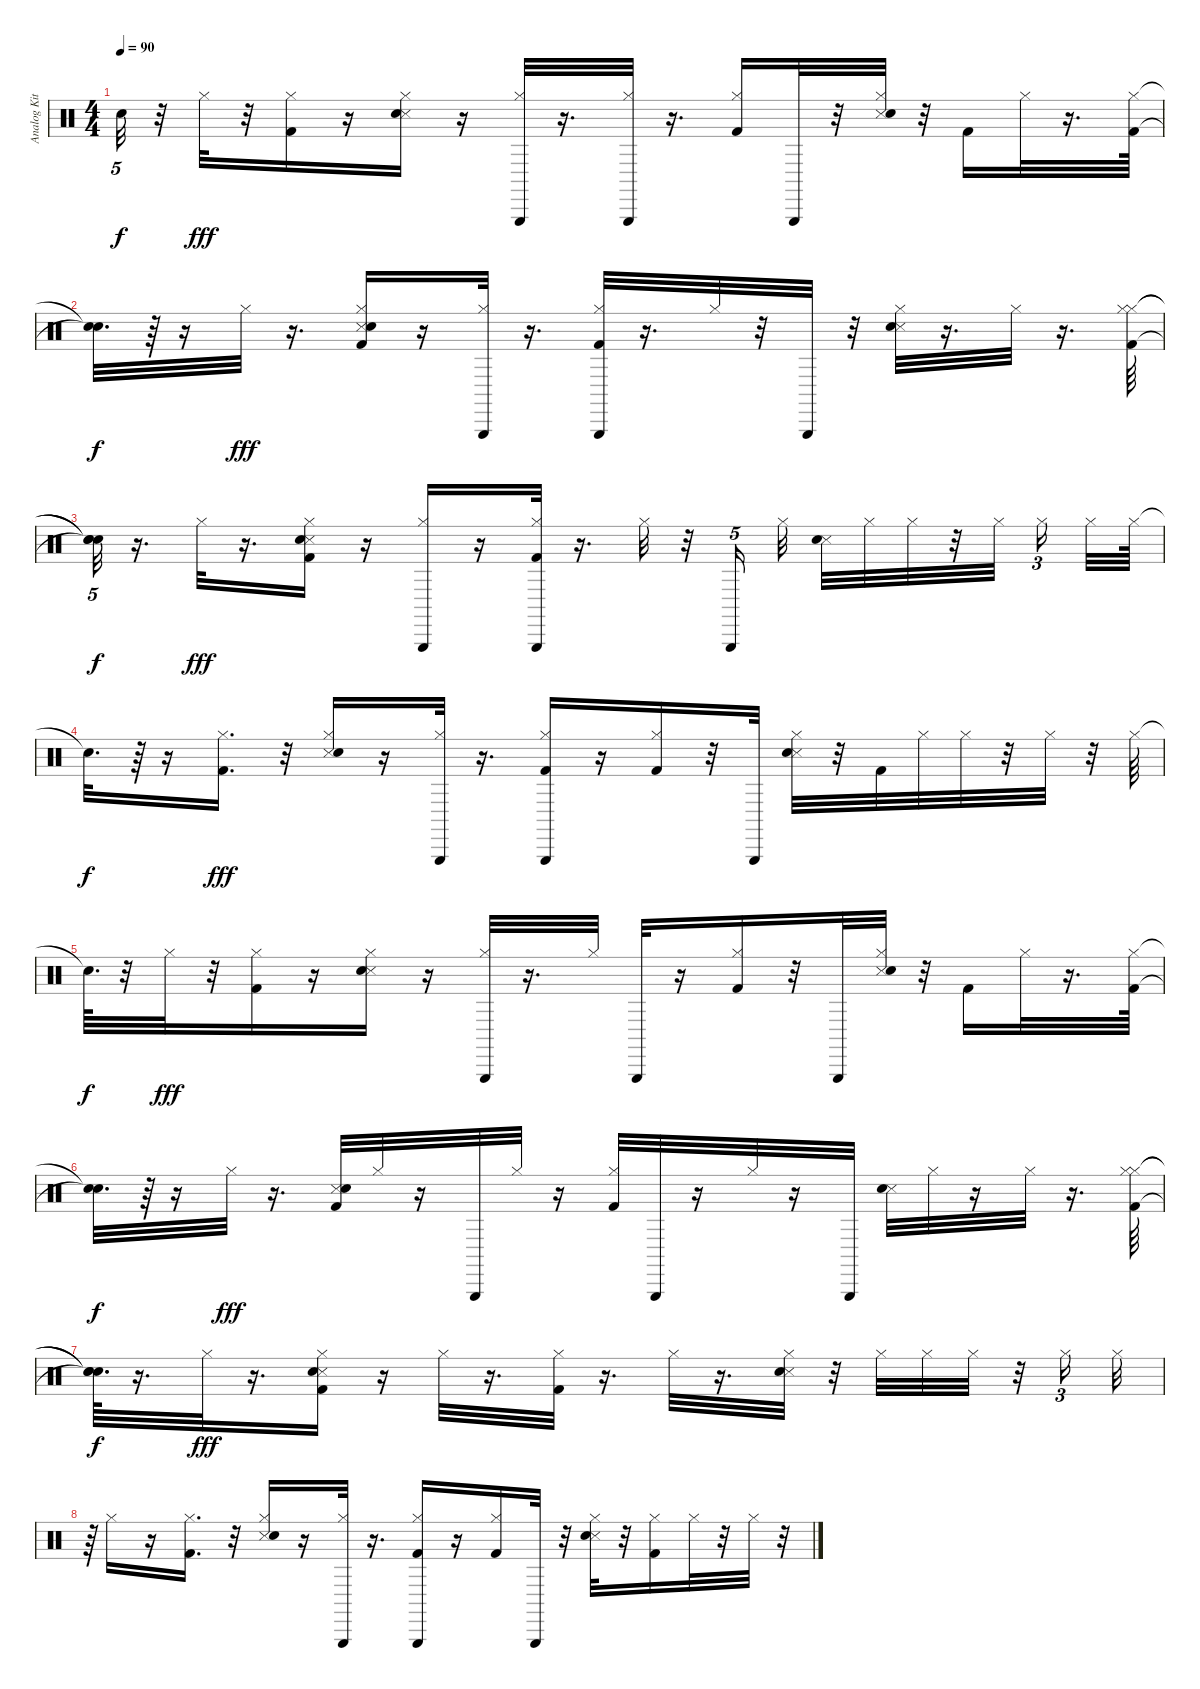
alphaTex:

\track ("Analog Kit" "Analog Kit") {instrument percussion}
\staff {score}
\articulation defaults
\ts (4 4)
\tempo 90
\clef neutral
\ks c "Snare (hit)"{t}.32{tu (5 4) dy f}
r.32 "Hi-Hat (closed)".32{dy fff} r.32 ("Hi-Hat (closed)" "Kick (hit) 2").16 r.16 ("Snare (side stick) 3" "Electric Snare (hit)" "Hi-Hat (closed)").16 r.16 ("Hi-Hat (closed)" "Triangle (hit)").32 r.16{d} ("Hi-Hat (closed)" "Triangle (hit)").32 r.16{d} ("Kick (hit) 2" "Hi-Hat (closed)").16 "Triangle (hit)".32 r.32 ("Snare (side stick) 3" "Electric Snare (hit)" "Hi-Hat (closed)").32 r.32 "Kick (hit) 2".16 "Hi-Hat (closed)".32 r.16{d} ("Hi-Hat (closed)" "Kick (hit) 2").64 |
("Snare (hit)"{t} "Snare (hit)"{t}).32{d dy f} r.64 r.16 "Hi-Hat (closed)".32{dy fff} r.16{d} ("Snare (side stick) 3" "Kick (hit) 2" "Electric Snare (hit)" "Hi-Hat (closed)").16 r.16 ("Triangle (hit)" "Hi-Hat (closed)").32 r.16{d} ("Kick (hit) 2" "Hi-Hat (closed)" "Triangle (hit)").32 r.16{d} "Hi-Hat (closed)".32 r.32 "Triangle (hit)".32 r.32 ("Snare (side stick) 3" "Electric Snare (hit)" "Hi-Hat (closed)").32 r.16{d} "Hi-Hat (closed)".32 r.16{d} ("Hi-Hat (closed)" "Hi-Hat (closed)" "Kick (hit) 2").64 |
("Snare (hit)"{t} "Snare (hit)"{t} "Snare (hit)"{t}).32{tu (5 4) dy f} r.16{d} "Hi-Hat (closed)".32{dy fff} r.16{d} ("Hi-Hat (closed)" "Snare (side stick) 3" "Kick (hit) 2" "Electric Snare (hit)").16 r.16 ("Hi-Hat (closed)" "Triangle (hit)").16 r.16 ("Kick (hit) 2" "Hi-Hat (closed)" "Triangle (hit)").32 r.16{d} "Hi-Hat (closed)".32 r.32 "Triangle (hit)".16{tu (5 4)} "Hi-Hat (closed)".32 ("Snare (side stick) 3" "Electric Snare (hit)").32 "Hi-Hat (closed)".32 "Hi-Hat (closed)".32 r.32 "Hi-Hat (closed)".32{beam splitsecondary} "Hi-Hat (closed)".16{tu (3 2) beam splitsecondary} "Hi-Hat (closed)".32 "Hi-Hat (closed)".64 |
"Snare (hit)"{t}.32{d dy f} r.64 r.16 ("Kick (hit) 2" "Hi-Hat (closed)").16{d dy fff} r.32 ("Snare (side stick) 3" "Electric Snare (hit)" "Hi-Hat (closed)").16 r.16 ("Hi-Hat (closed)" "Triangle (hit)").32 r.16{d} ("Hi-Hat (closed)" "Kick (hit) 2" "Triangle (hit)").16 r.16 ("Kick (hit) 2" "Hi-Hat (closed)").16 r.32 "Triangle (hit)".32 ("Snare (side stick) 3" "Electric Snare (hit)" "Hi-Hat (closed)").32 r.32 "Kick (hit) 2".32 "Hi-Hat (closed)".32 "Hi-Hat (closed)".32 r.32 "Hi-Hat (closed)".32 r.32 "Hi-Hat (closed)".64 |
"Snare (hit)"{t}.64{d dy f} r.32 "Hi-Hat (closed)".32{dy fff} r.32 ("Hi-Hat (closed)" "Kick (hit) 2").16 r.16 ("Snare (side stick) 3" "Electric Snare (hit)" "Hi-Hat (closed)").16 r.16 ("Hi-Hat (closed)" "Triangle (hit)").32 r.16{d} "Hi-Hat (closed)".32 "Triangle (hit)".32 r.16 ("Kick (hit) 2" "Hi-Hat (closed)").16 r.32 "Triangle (hit)".32 ("Snare (side stick) 3" "Electric Snare (hit)" "Hi-Hat (closed)").32 r.32 "Kick (hit) 2".16 "Hi-Hat (closed)".32 r.16{d} ("Hi-Hat (closed)" "Kick (hit) 2").64 |
("Snare (hit)"{t} "Snare (hit)"{t}).32{d dy f} r.64 r.16 "Hi-Hat (closed)".32{dy fff} r.16{d} ("Snare (side stick) 3" "Kick (hit) 2" "Electric Snare (hit)").32 "Hi-Hat (closed)".32 r.16 "Triangle (hit)".32 "Hi-Hat (closed)".32 r.16 ("Kick (hit) 2" "Hi-Hat (closed)").32 "Triangle (hit)".32 r.16 "Hi-Hat (closed)".32 r.16 "Triangle (hit)".32 ("Snare (side stick) 3" "Electric Snare (hit)").32 "Hi-Hat (closed)".32 r.16 "Hi-Hat (closed)".32 r.16{d} ("Hi-Hat (closed)" "Hi-Hat (closed)" "Kick (hit) 2").64 |
("Snare (hit)"{t} "Snare (hit)"{t} "Snare (hit)"{t}).64{d dy f} r.16{d} "Hi-Hat (closed)".32{dy fff} r.16{d} ("Hi-Hat (closed)" "Snare (side stick) 3" "Kick (hit) 2" "Electric Snare (hit)").16 r.16 "Hi-Hat (closed)".32 r.16{d} ("Kick (hit) 2" "Hi-Hat (closed)").32 r.16{d} "Hi-Hat (closed)".32 r.16{d} ("Hi-Hat (closed)" "Snare (side stick) 3" "Electric Snare (hit)").32 r.32 "Hi-Hat (closed)".32 "Hi-Hat (closed)".32 "Hi-Hat (closed)".32 r.32 "Hi-Hat (closed)".16{tu (3 2)} "Hi-Hat (closed)".32 |
r.64 "Hi-Hat (closed)".16 r.16 ("Kick (hit) 2" "Hi-Hat (closed)").16{d} r.32 ("Snare (side stick) 3" "Electric Snare (hit)" "Hi-Hat (closed)").16 r.16 ("Hi-Hat (closed)" "Triangle (hit)").32 r.16{d} ("Hi-Hat (closed)" "Kick (hit) 2" "Triangle (hit)").16 r.16 ("Kick (hit) 2" "Hi-Hat (closed)").16 "Triangle (hit)".32 r.32 ("Snare (side stick) 3" "Electric Snare (hit)" "Hi-Hat (closed)").32 r.32 ("Kick (hit) 2" "Hi-Hat (closed)").16 "Hi-Hat (closed)".32 r.32 "Hi-Hat (closed)".32 r.32
